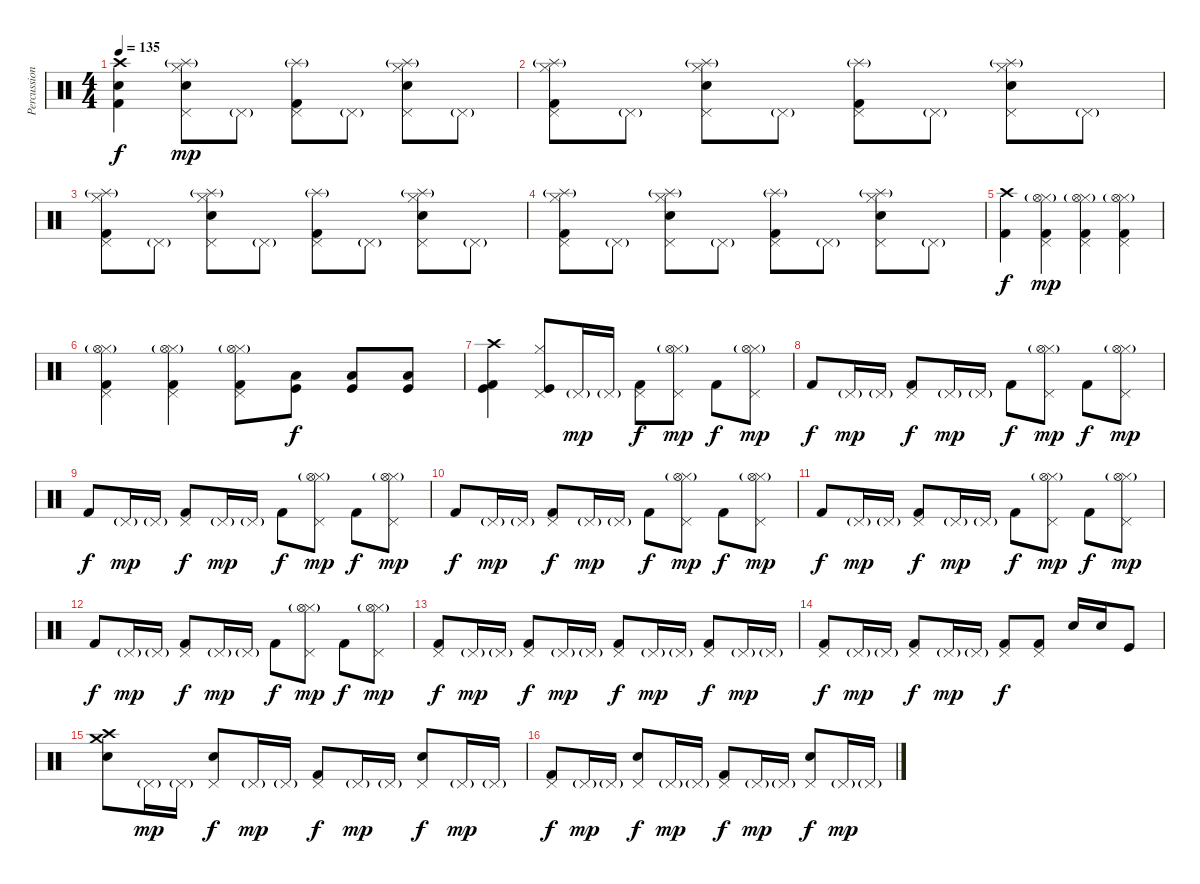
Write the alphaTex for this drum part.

\track ("Percussion" "Percussion") {instrument percussion}
\staff {score}
\articulation defaults
\ts (4 4)
\tempo 135
\clef neutral
\ks c
("Crash high (hit)" "Electric Snare (hit)" "Kick (hit) 2").4{dy f} ("Pedal Hi-Hat (hit)" "Hi-Hat (closed)" "Electric Snare (hit)" "Splash (hit)"{g}).8{dy mp} "Pedal Hi-Hat (hit)"{g}.8 ("Pedal Hi-Hat (hit)" "Kick (hit) 2" "Splash (hit)"{g}).8 "Pedal Hi-Hat (hit)"{g}.8 ("Pedal Hi-Hat (hit)" "Hi-Hat (closed)" "Electric Snare (hit)" "Splash (hit)"{g}).8 "Pedal Hi-Hat (hit)"{g}.8 |
("Pedal Hi-Hat (hit)" "Hi-Hat (closed)" "Kick (hit) 2" "Splash (hit)"{g}).8 "Pedal Hi-Hat (hit)"{g}.8 ("Pedal Hi-Hat (hit)" "Hi-Hat (closed)" "Electric Snare (hit)" "Splash (hit)"{g}).8 "Pedal Hi-Hat (hit)"{g}.8 ("Pedal Hi-Hat (hit)" "Kick (hit) 2" "Splash (hit)"{g}).8 "Pedal Hi-Hat (hit)"{g}.8 ("Pedal Hi-Hat (hit)" "Hi-Hat (closed)" "Electric Snare (hit)" "Splash (hit)"{g}).8 "Pedal Hi-Hat (hit)"{g}.8 |
("Pedal Hi-Hat (hit)" "Hi-Hat (closed)" "Kick (hit) 2" "Splash (hit)"{g}).8 "Pedal Hi-Hat (hit)"{g}.8 ("Pedal Hi-Hat (hit)" "Hi-Hat (closed)" "Electric Snare (hit)" "Splash (hit)"{g}).8 "Pedal Hi-Hat (hit)"{g}.8 ("Pedal Hi-Hat (hit)" "Kick (hit) 2" "Splash (hit)"{g}).8 "Pedal Hi-Hat (hit)"{g}.8 ("Pedal Hi-Hat (hit)" "Hi-Hat (closed)" "Electric Snare (hit)" "Splash (hit)"{g}).8 "Pedal Hi-Hat (hit)"{g}.8 |
("Pedal Hi-Hat (hit)" "Hi-Hat (closed)" "Kick (hit) 2" "Splash (hit)"{g}).8 "Pedal Hi-Hat (hit)"{g}.8 ("Pedal Hi-Hat (hit)" "Hi-Hat (closed)" "Electric Snare (hit)" "Splash (hit)"{g}).8 "Pedal Hi-Hat (hit)"{g}.8 ("Pedal Hi-Hat (hit)" "Kick (hit) 2" "Splash (hit)"{g}).8 "Pedal Hi-Hat (hit)"{g}.8 ("Pedal Hi-Hat (hit)" "Hi-Hat (closed)" "Electric Snare (hit)" "Splash (hit)"{g}).8 "Pedal Hi-Hat (hit)"{g}.8 |
("Crash high (hit)" "Kick (hit) 2").4{dy f} ("Pedal Hi-Hat (hit)" "Hi-Hat (closed)" "Kick (hit) 2" "Hi-Hat (open)"{g}).4{dy mp} ("Pedal Hi-Hat (hit)" "Hi-Hat (closed)" "Kick (hit) 2" "Hi-Hat (open)"{g}).4 ("Pedal Hi-Hat (hit)" "Hi-Hat (closed)" "Kick (hit) 2" "Hi-Hat (open)"{g}).4 |
("Pedal Hi-Hat (hit)" "Hi-Hat (closed)" "Kick (hit) 2" "Hi-Hat (open)"{g}).4 ("Pedal Hi-Hat (hit)" "Hi-Hat (closed)" "Kick (hit) 2" "Hi-Hat (open)"{g}).4 ("Pedal Hi-Hat (hit)" "Hi-Hat (closed)" "Kick (hit) 2" "Hi-Hat (open)"{g}).8 ("Low Tom (hit)" "Kick (hit)").8{dy f} ("Low Tom (hit)" "Kick (hit)").8 ("Low Tom (hit)" "Kick (hit)").8 |
("Crash high (hit)" "Kick (hit) 2" "Kick (hit)").4 ("Pedal Hi-Hat (hit)" "Hi-Hat (closed)" "Kick (hit)").8 "Pedal Hi-Hat (hit)"{g}.16{dy mp} "Pedal Hi-Hat (hit)"{g}.16 ("Pedal Hi-Hat (hit)" "Kick (hit) 2").8{dy f} ("Pedal Hi-Hat (hit)" "Hi-Hat (closed)" "Hi-Hat (open)"{g}).8{dy mp} "Kick (hit) 2".8{dy f} ("Pedal Hi-Hat (hit)" "Hi-Hat (closed)" "Hi-Hat (open)"{g}).8{dy mp} |
"Kick (hit) 2".8{dy f} "Pedal Hi-Hat (hit)"{g}.16{dy mp} "Pedal Hi-Hat (hit)"{g}.16 ("Pedal Hi-Hat (hit)" "Kick (hit) 2").8{dy f} "Pedal Hi-Hat (hit)"{g}.16{dy mp} "Pedal Hi-Hat (hit)"{g}.16 "Kick (hit) 2".8{dy f} ("Pedal Hi-Hat (hit)" "Hi-Hat (closed)" "Hi-Hat (open)"{g}).8{dy mp} "Kick (hit) 2".8{dy f} ("Pedal Hi-Hat (hit)" "Hi-Hat (closed)" "Hi-Hat (open)"{g}).8{dy mp} |
"Kick (hit) 2".8{dy f} "Pedal Hi-Hat (hit)"{g}.16{dy mp} "Pedal Hi-Hat (hit)"{g}.16 ("Pedal Hi-Hat (hit)" "Kick (hit) 2").8{dy f} "Pedal Hi-Hat (hit)"{g}.16{dy mp} "Pedal Hi-Hat (hit)"{g}.16 "Kick (hit) 2".8{dy f} ("Pedal Hi-Hat (hit)" "Hi-Hat (closed)" "Hi-Hat (open)"{g}).8{dy mp} "Kick (hit) 2".8{dy f} ("Pedal Hi-Hat (hit)" "Hi-Hat (closed)" "Hi-Hat (open)"{g}).8{dy mp} |
"Kick (hit) 2".8{dy f} "Pedal Hi-Hat (hit)"{g}.16{dy mp} "Pedal Hi-Hat (hit)"{g}.16 ("Pedal Hi-Hat (hit)" "Kick (hit) 2").8{dy f} "Pedal Hi-Hat (hit)"{g}.16{dy mp} "Pedal Hi-Hat (hit)"{g}.16 "Kick (hit) 2".8{dy f} ("Pedal Hi-Hat (hit)" "Hi-Hat (closed)" "Hi-Hat (open)"{g}).8{dy mp} "Kick (hit) 2".8{dy f} ("Pedal Hi-Hat (hit)" "Hi-Hat (closed)" "Hi-Hat (open)"{g}).8{dy mp} |
"Kick (hit) 2".8{dy f} "Pedal Hi-Hat (hit)"{g}.16{dy mp} "Pedal Hi-Hat (hit)"{g}.16 ("Pedal Hi-Hat (hit)" "Kick (hit) 2").8{dy f} "Pedal Hi-Hat (hit)"{g}.16{dy mp} "Pedal Hi-Hat (hit)"{g}.16 "Kick (hit) 2".8{dy f} ("Pedal Hi-Hat (hit)" "Hi-Hat (closed)" "Hi-Hat (open)"{g}).8{dy mp} "Kick (hit) 2".8{dy f} ("Pedal Hi-Hat (hit)" "Hi-Hat (closed)" "Hi-Hat (open)"{g}).8{dy mp} |
"Kick (hit) 2".8{dy f} "Pedal Hi-Hat (hit)"{g}.16{dy mp} "Pedal Hi-Hat (hit)"{g}.16 ("Pedal Hi-Hat (hit)" "Kick (hit) 2").8{dy f} "Pedal Hi-Hat (hit)"{g}.16{dy mp} "Pedal Hi-Hat (hit)"{g}.16 "Kick (hit) 2".8{dy f} ("Pedal Hi-Hat (hit)" "Hi-Hat (closed)" "Hi-Hat (open)"{g}).8{dy mp} "Kick (hit) 2".8{dy f} ("Pedal Hi-Hat (hit)" "Hi-Hat (closed)" "Hi-Hat (open)"{g}).8{dy mp} |
("Pedal Hi-Hat (hit)" "Kick (hit) 2").8{dy f} "Pedal Hi-Hat (hit)"{g}.16{dy mp} "Pedal Hi-Hat (hit)"{g}.16 ("Pedal Hi-Hat (hit)" "Kick (hit) 2").8{dy f} "Pedal Hi-Hat (hit)"{g}.16{dy mp} "Pedal Hi-Hat (hit)"{g}.16 ("Pedal Hi-Hat (hit)" "Kick (hit) 2").8{dy f} "Pedal Hi-Hat (hit)"{g}.16{dy mp} "Pedal Hi-Hat (hit)"{g}.16 ("Pedal Hi-Hat (hit)" "Kick (hit) 2").8{dy f} "Pedal Hi-Hat (hit)"{g}.16{dy mp} "Pedal Hi-Hat (hit)"{g}.16 |
("Pedal Hi-Hat (hit)" "Kick (hit) 2").8{dy f} "Pedal Hi-Hat (hit)"{g}.16{dy mp} "Pedal Hi-Hat (hit)"{g}.16 ("Pedal Hi-Hat (hit)" "Kick (hit) 2").8{dy f} "Pedal Hi-Hat (hit)"{g}.16{dy mp} "Pedal Hi-Hat (hit)"{g}.16 ("Pedal Hi-Hat (hit)" "Kick (hit) 2").8{dy f} ("Pedal Hi-Hat (hit)" "Kick (hit) 2").8 "Electric Snare (hit)".16 "Electric Snare (hit)".16 "Kick (hit)".8 |
("Crash high (hit)" "Crash medium (hit)" "Electric Snare (hit)").8 "Pedal Hi-Hat (hit)"{g}.16{dy mp} "Pedal Hi-Hat (hit)"{g}.16 ("Pedal Hi-Hat (hit)" "Electric Snare (hit)").8{dy f} "Pedal Hi-Hat (hit)"{g}.16{dy mp} "Pedal Hi-Hat (hit)"{g}.16 ("Pedal Hi-Hat (hit)" "Kick (hit) 2").8{dy f} "Pedal Hi-Hat (hit)"{g}.16{dy mp} "Pedal Hi-Hat (hit)"{g}.16 ("Pedal Hi-Hat (hit)" "Electric Snare (hit)").8{dy f} "Pedal Hi-Hat (hit)"{g}.16{dy mp} "Pedal Hi-Hat (hit)"{g}.16 |
("Pedal Hi-Hat (hit)" "Kick (hit) 2").8{dy f} "Pedal Hi-Hat (hit)"{g}.16{dy mp} "Pedal Hi-Hat (hit)"{g}.16 ("Pedal Hi-Hat (hit)" "Electric Snare (hit)").8{dy f} "Pedal Hi-Hat (hit)"{g}.16{dy mp} "Pedal Hi-Hat (hit)"{g}.16 ("Pedal Hi-Hat (hit)" "Kick (hit) 2").8{dy f} "Pedal Hi-Hat (hit)"{g}.16{dy mp} "Pedal Hi-Hat (hit)"{g}.16 ("Pedal Hi-Hat (hit)" "Electric Snare (hit)").8{dy f} "Pedal Hi-Hat (hit)"{g}.16{dy mp} "Pedal Hi-Hat (hit)"{g}.16
